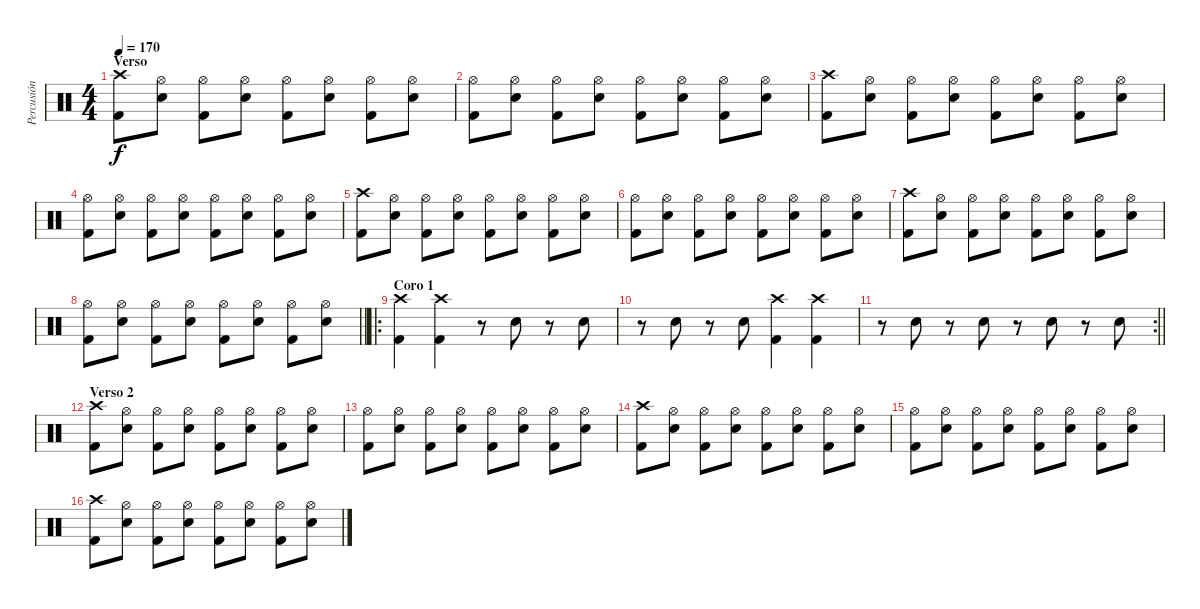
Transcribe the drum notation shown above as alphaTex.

\track ("Percusión" "Percusión") {instrument percussion}
\staff {score}
\articulation defaults
\ts (4 4)
\section ("" "Verso")
\tempo 170
\clef neutral
\ks c
("Crash high (hit)" "Kick (hit) 2").8{dy f} ("Hi-Hat (open)" "Electric Snare (hit)").8 ("Hi-Hat (open)" "Kick (hit) 2").8 ("Hi-Hat (open)" "Electric Snare (hit)").8 ("Hi-Hat (open)" "Kick (hit) 2").8 ("Hi-Hat (open)" "Electric Snare (hit)").8 ("Hi-Hat (open)" "Kick (hit) 2").8 ("Hi-Hat (open)" "Electric Snare (hit)").8 |
("Hi-Hat (open)" "Kick (hit) 2").8 ("Hi-Hat (open)" "Electric Snare (hit)").8 ("Hi-Hat (open)" "Kick (hit) 2").8 ("Hi-Hat (open)" "Electric Snare (hit)").8 ("Hi-Hat (open)" "Kick (hit) 2").8 ("Hi-Hat (open)" "Electric Snare (hit)").8 ("Hi-Hat (open)" "Kick (hit) 2").8 ("Hi-Hat (open)" "Electric Snare (hit)").8 |
("Crash high (hit)" "Kick (hit) 2").8 ("Hi-Hat (open)" "Electric Snare (hit)").8 ("Hi-Hat (open)" "Kick (hit) 2").8 ("Hi-Hat (open)" "Electric Snare (hit)").8 ("Hi-Hat (open)" "Kick (hit) 2").8 ("Hi-Hat (open)" "Electric Snare (hit)").8 ("Hi-Hat (open)" "Kick (hit) 2").8 ("Hi-Hat (open)" "Electric Snare (hit)").8 |
("Hi-Hat (open)" "Kick (hit) 2").8 ("Hi-Hat (open)" "Electric Snare (hit)").8 ("Hi-Hat (open)" "Kick (hit) 2").8 ("Hi-Hat (open)" "Electric Snare (hit)").8 ("Hi-Hat (open)" "Kick (hit) 2").8 ("Hi-Hat (open)" "Electric Snare (hit)").8 ("Hi-Hat (open)" "Kick (hit) 2").8 ("Hi-Hat (open)" "Electric Snare (hit)").8 |
("Crash high (hit)" "Kick (hit) 2").8 ("Hi-Hat (open)" "Electric Snare (hit)").8 ("Hi-Hat (open)" "Kick (hit) 2").8 ("Hi-Hat (open)" "Electric Snare (hit)").8 ("Hi-Hat (open)" "Kick (hit) 2").8 ("Hi-Hat (open)" "Electric Snare (hit)").8 ("Hi-Hat (open)" "Kick (hit) 2").8 ("Hi-Hat (open)" "Electric Snare (hit)").8 |
("Hi-Hat (open)" "Kick (hit) 2").8 ("Hi-Hat (open)" "Electric Snare (hit)").8 ("Hi-Hat (open)" "Kick (hit) 2").8 ("Hi-Hat (open)" "Electric Snare (hit)").8 ("Hi-Hat (open)" "Kick (hit) 2").8 ("Hi-Hat (open)" "Electric Snare (hit)").8 ("Hi-Hat (open)" "Kick (hit) 2").8 ("Hi-Hat (open)" "Electric Snare (hit)").8 |
("Crash high (hit)" "Kick (hit) 2").8 ("Hi-Hat (open)" "Electric Snare (hit)").8 ("Hi-Hat (open)" "Kick (hit) 2").8 ("Hi-Hat (open)" "Electric Snare (hit)").8 ("Hi-Hat (open)" "Kick (hit) 2").8 ("Hi-Hat (open)" "Electric Snare (hit)").8 ("Hi-Hat (open)" "Kick (hit) 2").8 ("Hi-Hat (open)" "Electric Snare (hit)").8 |
\barLineRight lightlight
("Hi-Hat (open)" "Kick (hit) 2").8 ("Hi-Hat (open)" "Electric Snare (hit)").8 ("Hi-Hat (open)" "Kick (hit) 2").8 ("Hi-Hat (open)" "Electric Snare (hit)").8 ("Hi-Hat (open)" "Kick (hit) 2").8 ("Hi-Hat (open)" "Electric Snare (hit)").8 ("Hi-Hat (open)" "Kick (hit) 2").8 ("Hi-Hat (open)" "Electric Snare (hit)").8 |
\ro
\section ("" "Coro 1")
("Crash high (hit)" "Kick (hit) 2").4 ("Crash high (hit)" "Kick (hit) 2").4 r.8 "Electric Snare (hit)".8 r.8 "Electric Snare (hit)".8 |
r.8 "Electric Snare (hit)".8 r.8 "Electric Snare (hit)".8 ("Crash high (hit)" "Kick (hit) 2").4 ("Crash high (hit)" "Kick (hit) 2").4 |
\rc 2
\barLineRight lightlight
r.8 "Electric Snare (hit)".8 r.8 "Electric Snare (hit)".8 r.8 "Electric Snare (hit)".8 r.8 "Electric Snare (hit)".8 |
\section ("" "Verso 2")
("Crash high (hit)" "Kick (hit) 2").8 ("Hi-Hat (open)" "Electric Snare (hit)").8 ("Hi-Hat (open)" "Kick (hit) 2").8 ("Hi-Hat (open)" "Electric Snare (hit)").8 ("Hi-Hat (open)" "Kick (hit) 2").8 ("Hi-Hat (open)" "Electric Snare (hit)").8 ("Hi-Hat (open)" "Kick (hit) 2").8 ("Hi-Hat (open)" "Electric Snare (hit)").8 |
("Hi-Hat (open)" "Kick (hit) 2").8 ("Hi-Hat (open)" "Electric Snare (hit)").8 ("Hi-Hat (open)" "Kick (hit) 2").8 ("Hi-Hat (open)" "Electric Snare (hit)").8 ("Hi-Hat (open)" "Kick (hit) 2").8 ("Hi-Hat (open)" "Electric Snare (hit)").8 ("Hi-Hat (open)" "Kick (hit) 2").8 ("Hi-Hat (open)" "Electric Snare (hit)").8 |
("Crash high (hit)" "Kick (hit) 2").8 ("Hi-Hat (open)" "Electric Snare (hit)").8 ("Hi-Hat (open)" "Kick (hit) 2").8 ("Hi-Hat (open)" "Electric Snare (hit)").8 ("Hi-Hat (open)" "Kick (hit) 2").8 ("Hi-Hat (open)" "Electric Snare (hit)").8 ("Hi-Hat (open)" "Kick (hit) 2").8 ("Hi-Hat (open)" "Electric Snare (hit)").8 |
("Hi-Hat (open)" "Kick (hit) 2").8 ("Hi-Hat (open)" "Electric Snare (hit)").8 ("Hi-Hat (open)" "Kick (hit) 2").8 ("Hi-Hat (open)" "Electric Snare (hit)").8 ("Hi-Hat (open)" "Kick (hit) 2").8 ("Hi-Hat (open)" "Electric Snare (hit)").8 ("Hi-Hat (open)" "Kick (hit) 2").8 ("Hi-Hat (open)" "Electric Snare (hit)").8 |
("Crash high (hit)" "Kick (hit) 2").8 ("Hi-Hat (open)" "Electric Snare (hit)").8 ("Hi-Hat (open)" "Kick (hit) 2").8 ("Hi-Hat (open)" "Electric Snare (hit)").8 ("Hi-Hat (open)" "Kick (hit) 2").8 ("Hi-Hat (open)" "Electric Snare (hit)").8 ("Hi-Hat (open)" "Kick (hit) 2").8 ("Hi-Hat (open)" "Electric Snare (hit)").8
